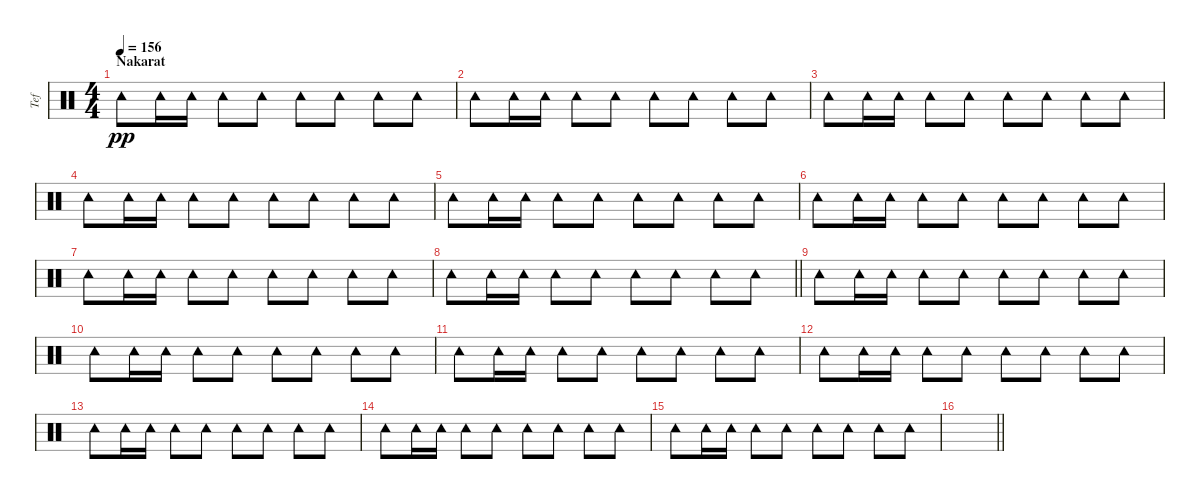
\track ("Tef" "Tef") {instrument percussion}
\staff {score}
\articulation defaults
\ts (4 4)
\section ("" "Nakarat")
\tempo 156
\clef neutral
\ks c "Tambourine (hit)".8{dy pp} "Tambourine (hit)".16 "Tambourine (hit)".16 "Tambourine (hit)".8 "Tambourine (hit)".8 "Tambourine (hit)".8 "Tambourine (hit)".8 "Tambourine (hit)".8 "Tambourine (hit)".8
|
"Tambourine (hit)".8 "Tambourine (hit)".16 "Tambourine (hit)".16 "Tambourine (hit)".8 "Tambourine (hit)".8 "Tambourine (hit)".8 "Tambourine (hit)".8 "Tambourine (hit)".8 "Tambourine (hit)".8 |
"Tambourine (hit)".8 "Tambourine (hit)".16 "Tambourine (hit)".16 "Tambourine (hit)".8 "Tambourine (hit)".8 "Tambourine (hit)".8 "Tambourine (hit)".8 "Tambourine (hit)".8 "Tambourine (hit)".8 |
"Tambourine (hit)".8 "Tambourine (hit)".16 "Tambourine (hit)".16 "Tambourine (hit)".8 "Tambourine (hit)".8 "Tambourine (hit)".8 "Tambourine (hit)".8 "Tambourine (hit)".8 "Tambourine (hit)".8 |
"Tambourine (hit)".8 "Tambourine (hit)".16 "Tambourine (hit)".16 "Tambourine (hit)".8 "Tambourine (hit)".8 "Tambourine (hit)".8 "Tambourine (hit)".8 "Tambourine (hit)".8 "Tambourine (hit)".8 |
"Tambourine (hit)".8 "Tambourine (hit)".16 "Tambourine (hit)".16 "Tambourine (hit)".8 "Tambourine (hit)".8 "Tambourine (hit)".8 "Tambourine (hit)".8 "Tambourine (hit)".8 "Tambourine (hit)".8 |
"Tambourine (hit)".8 "Tambourine (hit)".16 "Tambourine (hit)".16 "Tambourine (hit)".8 "Tambourine (hit)".8 "Tambourine (hit)".8 "Tambourine (hit)".8 "Tambourine (hit)".8 "Tambourine (hit)".8 |
\barLineRight lightlight "Tambourine (hit)".8 "Tambourine (hit)".16 "Tambourine (hit)".16 "Tambourine (hit)".8 "Tambourine (hit)".8 "Tambourine (hit)".8 "Tambourine (hit)".8 "Tambourine (hit)".8 "Tambourine (hit)".8
|
"Tambourine (hit)".8 "Tambourine (hit)".16 "Tambourine (hit)".16 "Tambourine (hit)".8 "Tambourine (hit)".8 "Tambourine (hit)".8 "Tambourine (hit)".8 "Tambourine (hit)".8 "Tambourine (hit)".8 |
"Tambourine (hit)".8 "Tambourine (hit)".16 "Tambourine (hit)".16 "Tambourine (hit)".8 "Tambourine (hit)".8 "Tambourine (hit)".8 "Tambourine (hit)".8 "Tambourine (hit)".8 "Tambourine (hit)".8 |
"Tambourine (hit)".8 "Tambourine (hit)".16 "Tambourine (hit)".16 "Tambourine (hit)".8 "Tambourine (hit)".8 "Tambourine (hit)".8 "Tambourine (hit)".8 "Tambourine (hit)".8 "Tambourine (hit)".8 |
"Tambourine (hit)".8 "Tambourine (hit)".16 "Tambourine (hit)".16 "Tambourine (hit)".8 "Tambourine (hit)".8 "Tambourine (hit)".8 "Tambourine (hit)".8 "Tambourine (hit)".8 "Tambourine (hit)".8 |
"Tambourine (hit)".8 "Tambourine (hit)".16 "Tambourine (hit)".16 "Tambourine (hit)".8 "Tambourine (hit)".8 "Tambourine (hit)".8 "Tambourine (hit)".8 "Tambourine (hit)".8 "Tambourine (hit)".8 |
"Tambourine (hit)".8 "Tambourine (hit)".16 "Tambourine (hit)".16 "Tambourine (hit)".8 "Tambourine (hit)".8 "Tambourine (hit)".8 "Tambourine (hit)".8 "Tambourine (hit)".8 "Tambourine (hit)".8 |
"Tambourine (hit)".8 "Tambourine (hit)".16 "Tambourine (hit)".16 "Tambourine (hit)".8 "Tambourine (hit)".8 "Tambourine (hit)".8 "Tambourine (hit)".8 "Tambourine (hit)".8 "Tambourine (hit)".8 |
\barLineRight lightlight
